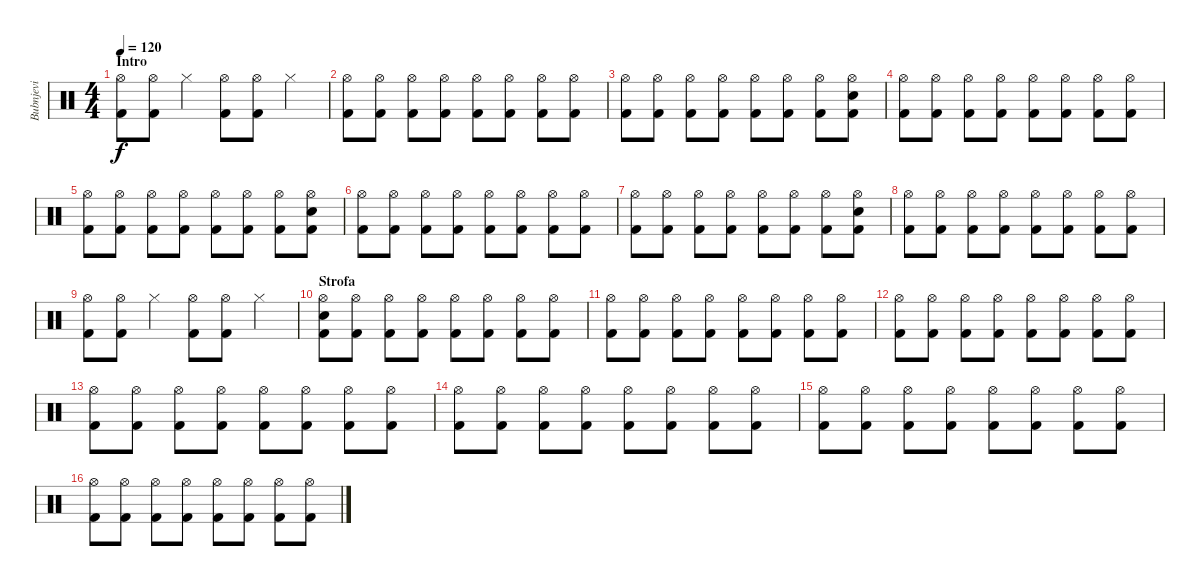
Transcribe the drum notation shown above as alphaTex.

\track ("Bubnjevi" "Bubnjevi") {instrument percussion}
\staff {score}
\articulation defaults
\ts (4 4)
\section ("" "Intro")
\tempo 120
\clef neutral
\ks c
("Hi-Hat (open)" "Kick (hit) 2").8{dy f} ("Hi-Hat (open)" "Kick (hit) 2").8 "Hi-Hat (closed)".4 ("Kick (hit) 2" "Hi-Hat (open)").8 ("Hi-Hat (open)" "Kick (hit) 2").8 "Hi-Hat (closed)".4 |
("Hi-Hat (open)" "Kick (hit) 2").8 ("Hi-Hat (open)" "Kick (hit) 2").8 ("Hi-Hat (open)" "Kick (hit) 2").8 ("Hi-Hat (open)" "Kick (hit) 2").8 ("Hi-Hat (open)" "Kick (hit) 2").8 ("Hi-Hat (open)" "Kick (hit) 2").8 ("Hi-Hat (open)" "Kick (hit) 2").8 ("Hi-Hat (open)" "Kick (hit) 2").8 |
("Hi-Hat (open)" "Kick (hit) 2").8 ("Hi-Hat (open)" "Kick (hit) 2").8 ("Hi-Hat (open)" "Kick (hit) 2").8 ("Hi-Hat (open)" "Kick (hit) 2").8 ("Hi-Hat (open)" "Kick (hit) 2").8 ("Hi-Hat (open)" "Kick (hit) 2").8 ("Hi-Hat (open)" "Kick (hit) 2").8 ("Hi-Hat (open)" "Kick (hit) 2" "Electric Snare (hit)").8 |
("Hi-Hat (open)" "Kick (hit) 2").8 ("Hi-Hat (open)" "Kick (hit) 2").8 ("Hi-Hat (open)" "Kick (hit) 2").8 ("Hi-Hat (open)" "Kick (hit) 2").8 ("Hi-Hat (open)" "Kick (hit) 2").8 ("Hi-Hat (open)" "Kick (hit) 2").8 ("Hi-Hat (open)" "Kick (hit) 2").8 ("Hi-Hat (open)" "Kick (hit) 2").8 |
("Hi-Hat (open)" "Kick (hit) 2").8 ("Hi-Hat (open)" "Kick (hit) 2").8 ("Hi-Hat (open)" "Kick (hit) 2").8 ("Hi-Hat (open)" "Kick (hit) 2").8 ("Hi-Hat (open)" "Kick (hit) 2").8 ("Hi-Hat (open)" "Kick (hit) 2").8 ("Hi-Hat (open)" "Kick (hit) 2").8 ("Hi-Hat (open)" "Kick (hit) 2" "Electric Snare (hit)").8 |
("Hi-Hat (open)" "Kick (hit) 2").8 ("Hi-Hat (open)" "Kick (hit) 2").8 ("Hi-Hat (open)" "Kick (hit) 2").8 ("Hi-Hat (open)" "Kick (hit) 2").8 ("Hi-Hat (open)" "Kick (hit) 2").8 ("Hi-Hat (open)" "Kick (hit) 2").8 ("Hi-Hat (open)" "Kick (hit) 2").8 ("Hi-Hat (open)" "Kick (hit) 2").8 |
("Hi-Hat (open)" "Kick (hit) 2").8 ("Hi-Hat (open)" "Kick (hit) 2").8 ("Hi-Hat (open)" "Kick (hit) 2").8 ("Hi-Hat (open)" "Kick (hit) 2").8 ("Hi-Hat (open)" "Kick (hit) 2").8 ("Hi-Hat (open)" "Kick (hit) 2").8 ("Hi-Hat (open)" "Kick (hit) 2").8 ("Hi-Hat (open)" "Kick (hit) 2" "Electric Snare (hit)").8 |
("Hi-Hat (open)" "Kick (hit) 2").8 ("Hi-Hat (open)" "Kick (hit) 2").8 ("Hi-Hat (open)" "Kick (hit) 2").8 ("Hi-Hat (open)" "Kick (hit) 2").8 ("Hi-Hat (open)" "Kick (hit) 2").8 ("Hi-Hat (open)" "Kick (hit) 2").8 ("Hi-Hat (open)" "Kick (hit) 2").8 ("Hi-Hat (open)" "Kick (hit) 2").8 |
("Hi-Hat (open)" "Kick (hit) 2").8 ("Hi-Hat (open)" "Kick (hit) 2").8 "Hi-Hat (closed)".4 ("Kick (hit) 2" "Hi-Hat (open)").8 ("Hi-Hat (open)" "Kick (hit) 2").8 "Hi-Hat (closed)".4 |
\section ("" "Strofa")
("Hi-Hat (open)" "Kick (hit) 2" "Electric Snare (hit)").8 ("Hi-Hat (open)" "Kick (hit) 2").8 ("Hi-Hat (open)" "Kick (hit) 2").8 ("Hi-Hat (open)" "Kick (hit) 2").8 ("Hi-Hat (open)" "Kick (hit) 2").8 ("Hi-Hat (open)" "Kick (hit) 2").8 ("Hi-Hat (open)" "Kick (hit) 2").8 ("Hi-Hat (open)" "Kick (hit) 2").8 |
("Hi-Hat (open)" "Kick (hit) 2").8 ("Hi-Hat (open)" "Kick (hit) 2").8 ("Hi-Hat (open)" "Kick (hit) 2").8 ("Hi-Hat (open)" "Kick (hit) 2").8 ("Hi-Hat (open)" "Kick (hit) 2").8 ("Hi-Hat (open)" "Kick (hit) 2").8 ("Hi-Hat (open)" "Kick (hit) 2").8 ("Hi-Hat (open)" "Kick (hit) 2").8 |
("Hi-Hat (open)" "Kick (hit) 2").8 ("Hi-Hat (open)" "Kick (hit) 2").8 ("Hi-Hat (open)" "Kick (hit) 2").8 ("Hi-Hat (open)" "Kick (hit) 2").8 ("Hi-Hat (open)" "Kick (hit) 2").8 ("Hi-Hat (open)" "Kick (hit) 2").8 ("Hi-Hat (open)" "Kick (hit) 2").8 ("Hi-Hat (open)" "Kick (hit) 2").8 |
("Hi-Hat (open)" "Kick (hit) 2").8 ("Hi-Hat (open)" "Kick (hit) 2").8 ("Hi-Hat (open)" "Kick (hit) 2").8 ("Hi-Hat (open)" "Kick (hit) 2").8 ("Hi-Hat (open)" "Kick (hit) 2").8 ("Hi-Hat (open)" "Kick (hit) 2").8 ("Hi-Hat (open)" "Kick (hit) 2").8 ("Hi-Hat (open)" "Kick (hit) 2").8 |
("Hi-Hat (open)" "Kick (hit) 2").8 ("Hi-Hat (open)" "Kick (hit) 2").8 ("Hi-Hat (open)" "Kick (hit) 2").8 ("Hi-Hat (open)" "Kick (hit) 2").8 ("Hi-Hat (open)" "Kick (hit) 2").8 ("Hi-Hat (open)" "Kick (hit) 2").8 ("Hi-Hat (open)" "Kick (hit) 2").8 ("Hi-Hat (open)" "Kick (hit) 2").8 |
("Hi-Hat (open)" "Kick (hit) 2").8 ("Hi-Hat (open)" "Kick (hit) 2").8 ("Hi-Hat (open)" "Kick (hit) 2").8 ("Hi-Hat (open)" "Kick (hit) 2").8 ("Hi-Hat (open)" "Kick (hit) 2").8 ("Hi-Hat (open)" "Kick (hit) 2").8 ("Hi-Hat (open)" "Kick (hit) 2").8 ("Hi-Hat (open)" "Kick (hit) 2").8 |
("Hi-Hat (open)" "Kick (hit) 2").8 ("Hi-Hat (open)" "Kick (hit) 2").8 ("Hi-Hat (open)" "Kick (hit) 2").8 ("Hi-Hat (open)" "Kick (hit) 2").8 ("Hi-Hat (open)" "Kick (hit) 2").8 ("Hi-Hat (open)" "Kick (hit) 2").8 ("Hi-Hat (open)" "Kick (hit) 2").8 ("Hi-Hat (open)" "Kick (hit) 2").8
